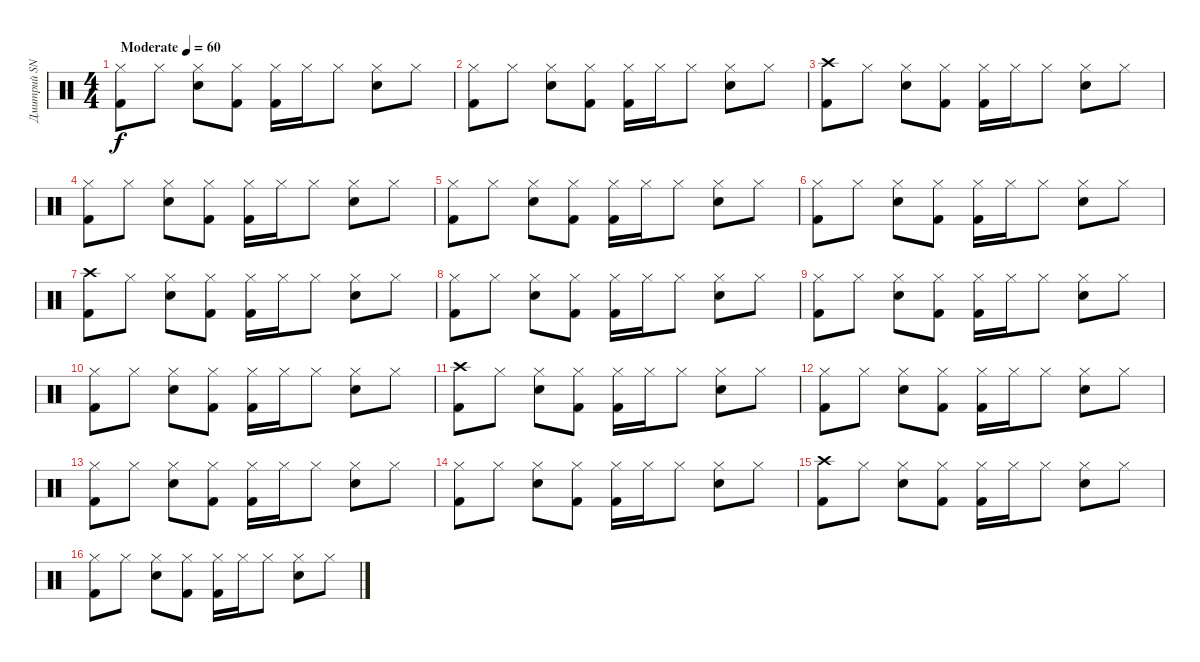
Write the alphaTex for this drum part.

\track ("Дмитрий SNAKE Хакимов" "Дмитрий SN") {instrument percussion}
\staff {score}
\articulation defaults
\ts (4 4)
\tempo (60 "Moderate")
\clef neutral
\ks c
("Hi-Hat (closed)" "Kick (hit) 2").8{dy f} "Hi-Hat (closed)".8 ("Hi-Hat (closed)" "Electric Snare (hit)").8 ("Hi-Hat (closed)" "Kick (hit) 2").8 ("Hi-Hat (closed)" "Kick (hit) 2").16 "Hi-Hat (closed)".16 "Hi-Hat (closed)".8 ("Hi-Hat (closed)" "Electric Snare (hit)").8 "Hi-Hat (closed)".8 |
("Hi-Hat (closed)" "Kick (hit) 2").8 "Hi-Hat (closed)".8 ("Hi-Hat (closed)" "Electric Snare (hit)").8 ("Hi-Hat (closed)" "Kick (hit) 2").8 ("Hi-Hat (closed)" "Kick (hit) 2").16 "Hi-Hat (closed)".16 "Hi-Hat (closed)".8 ("Hi-Hat (closed)" "Electric Snare (hit)").8 "Hi-Hat (closed)".8 |
("Crash high (hit)" "Kick (hit) 2").8 "Hi-Hat (closed)".8 ("Hi-Hat (closed)" "Electric Snare (hit)").8 ("Hi-Hat (closed)" "Kick (hit) 2").8 ("Hi-Hat (closed)" "Kick (hit) 2").16 "Hi-Hat (closed)".16 "Hi-Hat (closed)".8 ("Hi-Hat (closed)" "Electric Snare (hit)").8 "Hi-Hat (closed)".8 |
("Hi-Hat (closed)" "Kick (hit) 2").8 "Hi-Hat (closed)".8 ("Hi-Hat (closed)" "Electric Snare (hit)").8 ("Hi-Hat (closed)" "Kick (hit) 2").8 ("Hi-Hat (closed)" "Kick (hit) 2").16 "Hi-Hat (closed)".16 "Hi-Hat (closed)".8 ("Hi-Hat (closed)" "Electric Snare (hit)").8 "Hi-Hat (closed)".8 |
("Hi-Hat (closed)" "Kick (hit) 2").8 "Hi-Hat (closed)".8 ("Hi-Hat (closed)" "Electric Snare (hit)").8 ("Hi-Hat (closed)" "Kick (hit) 2").8 ("Hi-Hat (closed)" "Kick (hit) 2").16 "Hi-Hat (closed)".16 "Hi-Hat (closed)".8 ("Hi-Hat (closed)" "Electric Snare (hit)").8 "Hi-Hat (closed)".8 |
("Hi-Hat (closed)" "Kick (hit) 2").8 "Hi-Hat (closed)".8 ("Hi-Hat (closed)" "Electric Snare (hit)").8 ("Hi-Hat (closed)" "Kick (hit) 2").8 ("Hi-Hat (closed)" "Kick (hit) 2").16 "Hi-Hat (closed)".16 "Hi-Hat (closed)".8 ("Hi-Hat (closed)" "Electric Snare (hit)").8 "Hi-Hat (closed)".8 |
("Crash high (hit)" "Kick (hit) 2").8 "Hi-Hat (closed)".8 ("Hi-Hat (closed)" "Electric Snare (hit)").8 ("Hi-Hat (closed)" "Kick (hit) 2").8 ("Hi-Hat (closed)" "Kick (hit) 2").16 "Hi-Hat (closed)".16 "Hi-Hat (closed)".8 ("Hi-Hat (closed)" "Electric Snare (hit)").8 "Hi-Hat (closed)".8 |
("Hi-Hat (closed)" "Kick (hit) 2").8 "Hi-Hat (closed)".8 ("Hi-Hat (closed)" "Electric Snare (hit)").8 ("Hi-Hat (closed)" "Kick (hit) 2").8 ("Hi-Hat (closed)" "Kick (hit) 2").16 "Hi-Hat (closed)".16 "Hi-Hat (closed)".8 ("Hi-Hat (closed)" "Electric Snare (hit)").8 "Hi-Hat (closed)".8 |
("Hi-Hat (closed)" "Kick (hit) 2").8 "Hi-Hat (closed)".8 ("Hi-Hat (closed)" "Electric Snare (hit)").8 ("Hi-Hat (closed)" "Kick (hit) 2").8 ("Hi-Hat (closed)" "Kick (hit) 2").16 "Hi-Hat (closed)".16 "Hi-Hat (closed)".8 ("Hi-Hat (closed)" "Electric Snare (hit)").8 "Hi-Hat (closed)".8 |
("Hi-Hat (closed)" "Kick (hit) 2").8 "Hi-Hat (closed)".8 ("Hi-Hat (closed)" "Electric Snare (hit)").8 ("Hi-Hat (closed)" "Kick (hit) 2").8 ("Hi-Hat (closed)" "Kick (hit) 2").16 "Hi-Hat (closed)".16 "Hi-Hat (closed)".8 ("Hi-Hat (closed)" "Electric Snare (hit)").8 "Hi-Hat (closed)".8 |
("Crash high (hit)" "Kick (hit) 2").8 "Hi-Hat (closed)".8 ("Hi-Hat (closed)" "Electric Snare (hit)").8 ("Hi-Hat (closed)" "Kick (hit) 2").8 ("Hi-Hat (closed)" "Kick (hit) 2").16 "Hi-Hat (closed)".16 "Hi-Hat (closed)".8 ("Hi-Hat (closed)" "Electric Snare (hit)").8 "Hi-Hat (closed)".8 |
("Hi-Hat (closed)" "Kick (hit) 2").8 "Hi-Hat (closed)".8 ("Hi-Hat (closed)" "Electric Snare (hit)").8 ("Hi-Hat (closed)" "Kick (hit) 2").8 ("Hi-Hat (closed)" "Kick (hit) 2").16 "Hi-Hat (closed)".16 "Hi-Hat (closed)".8 ("Hi-Hat (closed)" "Electric Snare (hit)").8 "Hi-Hat (closed)".8 |
("Hi-Hat (closed)" "Kick (hit) 2").8 "Hi-Hat (closed)".8 ("Hi-Hat (closed)" "Electric Snare (hit)").8 ("Hi-Hat (closed)" "Kick (hit) 2").8 ("Hi-Hat (closed)" "Kick (hit) 2").16 "Hi-Hat (closed)".16 "Hi-Hat (closed)".8 ("Hi-Hat (closed)" "Electric Snare (hit)").8 "Hi-Hat (closed)".8 |
("Hi-Hat (closed)" "Kick (hit) 2").8 "Hi-Hat (closed)".8 ("Hi-Hat (closed)" "Electric Snare (hit)").8 ("Hi-Hat (closed)" "Kick (hit) 2").8 ("Hi-Hat (closed)" "Kick (hit) 2").16 "Hi-Hat (closed)".16 "Hi-Hat (closed)".8 ("Hi-Hat (closed)" "Electric Snare (hit)").8 "Hi-Hat (closed)".8 |
("Crash high (hit)" "Kick (hit) 2").8 "Hi-Hat (closed)".8 ("Hi-Hat (closed)" "Electric Snare (hit)").8 ("Hi-Hat (closed)" "Kick (hit) 2").8 ("Hi-Hat (closed)" "Kick (hit) 2").16 "Hi-Hat (closed)".16 "Hi-Hat (closed)".8 ("Hi-Hat (closed)" "Electric Snare (hit)").8 "Hi-Hat (closed)".8 |
("Hi-Hat (closed)" "Kick (hit) 2").8 "Hi-Hat (closed)".8 ("Hi-Hat (closed)" "Electric Snare (hit)").8 ("Hi-Hat (closed)" "Kick (hit) 2").8 ("Hi-Hat (closed)" "Kick (hit) 2").16 "Hi-Hat (closed)".16 "Hi-Hat (closed)".8 ("Hi-Hat (closed)" "Electric Snare (hit)").8 "Hi-Hat (closed)".8
